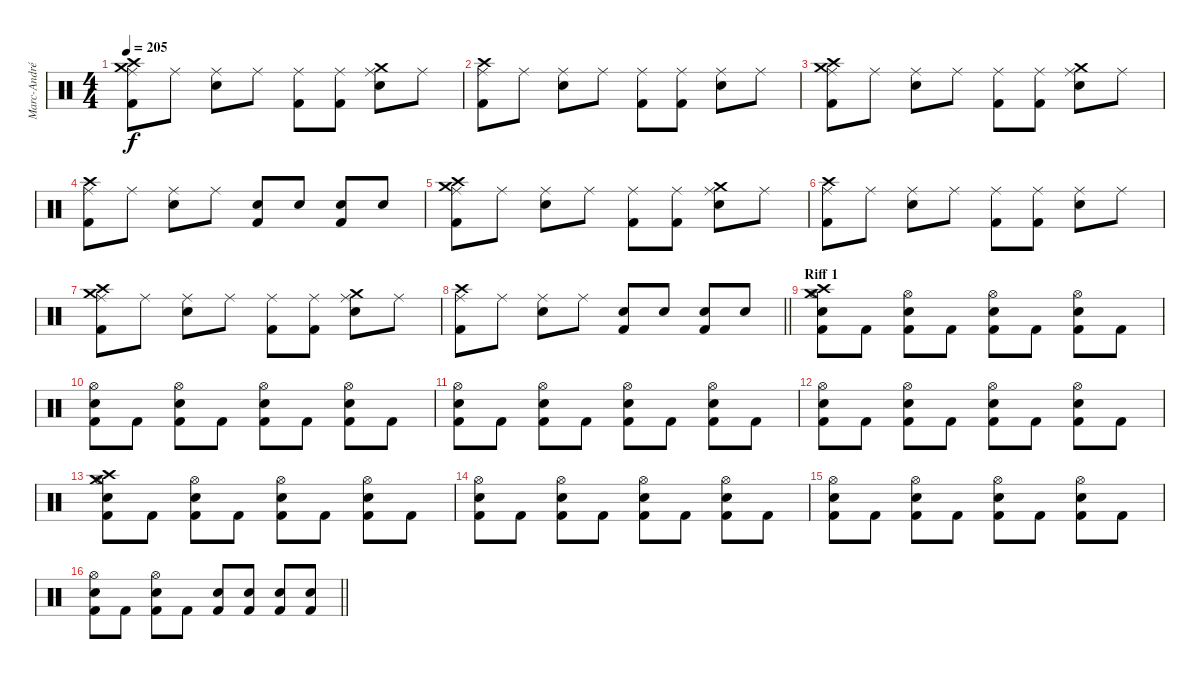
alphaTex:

\track ("Marc-André Barabé" "Marc-André") {instrument percussion}
\staff {score}
\articulation defaults
\ts (4 4)
\tempo 205
\clef neutral
\ks c
("Crash high (hit)" "Crash medium (hit)" "Ride (middle)" "Kick (hit) 2").8{dy f} "Ride (middle)".8 ("Ride (middle)" "Electric Snare (hit)").8 "Ride (middle)".8 ("Ride (middle)" "Kick (hit) 2").8 ("Ride (middle)" "Kick (hit) 2").8 ("Crash medium (hit)" "Ride (middle)" "Electric Snare (hit)").8 "Ride (middle)".8 |
("Crash high (hit)" "Ride (middle)" "Kick (hit) 2").8 "Ride (middle)".8 ("Ride (middle)" "Electric Snare (hit)").8 "Ride (middle)".8 ("Ride (middle)" "Kick (hit) 2").8 ("Ride (middle)" "Kick (hit) 2").8 ("Ride (middle)" "Electric Snare (hit)").8 "Ride (middle)".8 |
("Crash high (hit)" "Crash medium (hit)" "Ride (middle)" "Kick (hit) 2").8 "Ride (middle)".8 ("Ride (middle)" "Electric Snare (hit)").8 "Ride (middle)".8 ("Ride (middle)" "Kick (hit) 2").8 ("Ride (middle)" "Kick (hit) 2").8 ("Crash medium (hit)" "Ride (middle)" "Electric Snare (hit)").8 "Ride (middle)".8 |
("Crash high (hit)" "Ride (middle)" "Kick (hit) 2").8 "Ride (middle)".8 ("Ride (middle)" "Electric Snare (hit)").8 "Ride (middle)".8 ("Electric Snare (hit)"{tr (4 32)} "Kick (hit) 2").8 "Electric Snare (hit)"{tr (4 32)}.8 ("Electric Snare (hit)"{tr (4 32)} "Kick (hit) 2").8 "Electric Snare (hit)"{tr (4 32)}.8 |
("Crash high (hit)" "Crash medium (hit)" "Ride (middle)" "Kick (hit) 2").8 "Ride (middle)".8 ("Ride (middle)" "Electric Snare (hit)").8 "Ride (middle)".8 ("Ride (middle)" "Kick (hit) 2").8 ("Ride (middle)" "Kick (hit) 2").8 ("Crash medium (hit)" "Ride (middle)" "Electric Snare (hit)").8 "Ride (middle)".8 |
("Crash high (hit)" "Ride (middle)" "Kick (hit) 2").8 "Ride (middle)".8 ("Ride (middle)" "Electric Snare (hit)").8 "Ride (middle)".8 ("Ride (middle)" "Kick (hit) 2").8 ("Ride (middle)" "Kick (hit) 2").8 ("Ride (middle)" "Electric Snare (hit)").8 "Ride (middle)".8 |
("Crash high (hit)" "Crash medium (hit)" "Ride (middle)" "Kick (hit) 2").8 "Ride (middle)".8 ("Ride (middle)" "Electric Snare (hit)").8 "Ride (middle)".8 ("Ride (middle)" "Kick (hit) 2").8 ("Ride (middle)" "Kick (hit) 2").8 ("Crash medium (hit)" "Ride (middle)" "Electric Snare (hit)").8 "Ride (middle)".8 |
\barLineRight lightlight
("Crash high (hit)" "Ride (middle)" "Kick (hit) 2").8 "Ride (middle)".8 ("Ride (middle)" "Electric Snare (hit)").8 "Ride (middle)".8 ("Electric Snare (hit)"{tr (4 32)} "Kick (hit) 2").8 "Electric Snare (hit)"{tr (4 32)}.8 ("Electric Snare (hit)"{tr (4 32)} "Kick (hit) 2").8 "Electric Snare (hit)"{tr (4 32)}.8 |
\section ("" "Riff 1")
("Crash high (hit)" "Crash medium (hit)" "Hi-Hat (open)" "Electric Snare (hit)" "Kick (hit) 2").8 "Kick (hit) 2".8 ("Hi-Hat (open)" "Electric Snare (hit)" "Kick (hit) 2").8 "Kick (hit) 2".8 ("Hi-Hat (open)" "Electric Snare (hit)" "Kick (hit) 2").8 "Kick (hit) 2".8 ("Hi-Hat (open)" "Electric Snare (hit)" "Kick (hit) 2").8 "Kick (hit) 2".8 |
("Hi-Hat (open)" "Electric Snare (hit)" "Kick (hit) 2").8 "Kick (hit) 2".8 ("Hi-Hat (open)" "Electric Snare (hit)" "Kick (hit) 2").8 "Kick (hit) 2".8 ("Hi-Hat (open)" "Electric Snare (hit)" "Kick (hit) 2").8 "Kick (hit) 2".8 ("Hi-Hat (open)" "Electric Snare (hit)" "Kick (hit) 2").8 "Kick (hit) 2".8 |
("Hi-Hat (open)" "Electric Snare (hit)" "Kick (hit) 2").8 "Kick (hit) 2".8 ("Hi-Hat (open)" "Electric Snare (hit)" "Kick (hit) 2").8 "Kick (hit) 2".8 ("Hi-Hat (open)" "Electric Snare (hit)" "Kick (hit) 2").8 "Kick (hit) 2".8 ("Hi-Hat (open)" "Electric Snare (hit)" "Kick (hit) 2").8 "Kick (hit) 2".8 |
("Hi-Hat (open)" "Electric Snare (hit)" "Kick (hit) 2").8 "Kick (hit) 2".8 ("Hi-Hat (open)" "Electric Snare (hit)" "Kick (hit) 2").8 "Kick (hit) 2".8 ("Hi-Hat (open)" "Electric Snare (hit)" "Kick (hit) 2").8 "Kick (hit) 2".8 ("Hi-Hat (open)" "Electric Snare (hit)" "Kick (hit) 2").8 "Kick (hit) 2".8 |
("Crash high (hit)" "Crash medium (hit)" "Hi-Hat (open)" "Electric Snare (hit)" "Kick (hit) 2").8 "Kick (hit) 2".8 ("Hi-Hat (open)" "Electric Snare (hit)" "Kick (hit) 2").8 "Kick (hit) 2".8 ("Hi-Hat (open)" "Electric Snare (hit)" "Kick (hit) 2").8 "Kick (hit) 2".8 ("Hi-Hat (open)" "Electric Snare (hit)" "Kick (hit) 2").8 "Kick (hit) 2".8 |
("Hi-Hat (open)" "Electric Snare (hit)" "Kick (hit) 2").8 "Kick (hit) 2".8 ("Hi-Hat (open)" "Electric Snare (hit)" "Kick (hit) 2").8 "Kick (hit) 2".8 ("Hi-Hat (open)" "Electric Snare (hit)" "Kick (hit) 2").8 "Kick (hit) 2".8 ("Hi-Hat (open)" "Electric Snare (hit)" "Kick (hit) 2").8 "Kick (hit) 2".8 |
("Hi-Hat (open)" "Electric Snare (hit)" "Kick (hit) 2").8 "Kick (hit) 2".8 ("Hi-Hat (open)" "Electric Snare (hit)" "Kick (hit) 2").8 "Kick (hit) 2".8 ("Hi-Hat (open)" "Electric Snare (hit)" "Kick (hit) 2").8 "Kick (hit) 2".8 ("Hi-Hat (open)" "Electric Snare (hit)" "Kick (hit) 2").8 "Kick (hit) 2".8 |
\barLineRight lightlight
("Hi-Hat (open)" "Electric Snare (hit)" "Kick (hit) 2").8 "Kick (hit) 2".8 ("Hi-Hat (open)" "Electric Snare (hit)" "Kick (hit) 2").8 "Kick (hit) 2".8 ("Electric Snare (hit)"{tr (4 32)} "Kick (hit) 2").8 ("Electric Snare (hit)"{tr (4 32)} "Kick (hit) 2").8 ("Electric Snare (hit)"{tr (4 32)} "Kick (hit) 2").8 ("Electric Snare (hit)"{tr (4 32)} "Kick (hit) 2").8
